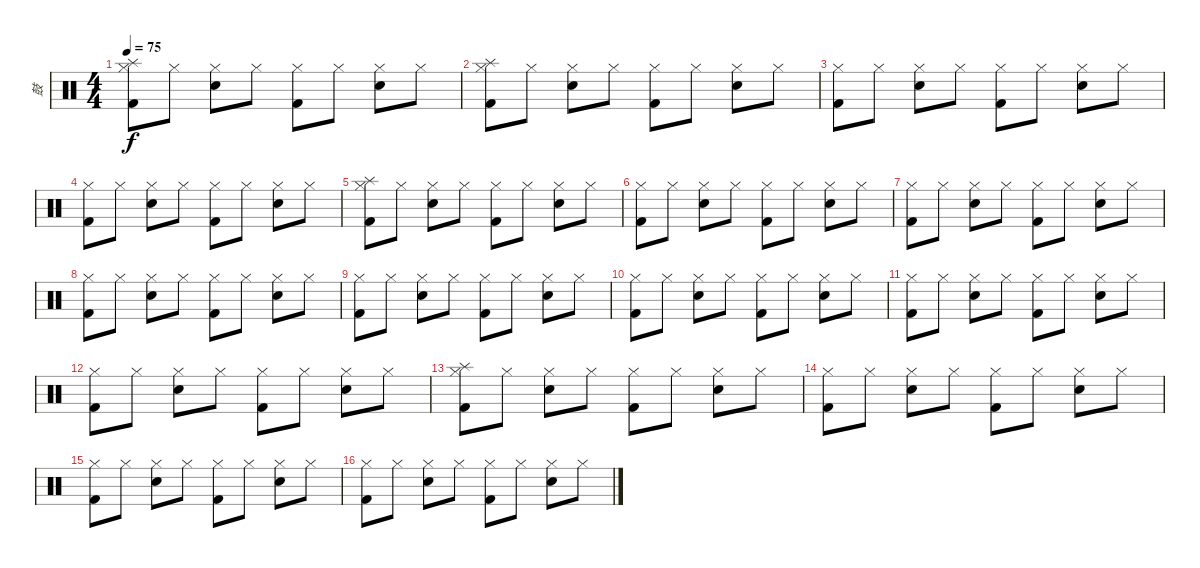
\track ("鼓" "鼓") {instrument percussion}
\staff {score}
\articulation defaults
\ts (4 4)
\tempo 75
\clef neutral
\ks c
("Hi-Hat (closed)" "Splash (hit)" "Kick (hit) 2").8{dy f} "Hi-Hat (closed)".8 ("Hi-Hat (closed)" "Electric Snare (hit)").8 "Hi-Hat (closed)".8 ("Hi-Hat (closed)" "Kick (hit) 2").8 "Hi-Hat (closed)".8 ("Hi-Hat (closed)" "Electric Snare (hit)").8 "Hi-Hat (closed)".8 |
("Hi-Hat (closed)" "Splash (hit)" "Kick (hit) 2").8 "Hi-Hat (closed)".8 ("Hi-Hat (closed)" "Electric Snare (hit)").8 "Hi-Hat (closed)".8 ("Hi-Hat (closed)" "Kick (hit) 2").8 "Hi-Hat (closed)".8 ("Hi-Hat (closed)" "Electric Snare (hit)").8 "Hi-Hat (closed)".8 |
("Hi-Hat (closed)" "Kick (hit) 2").8 "Hi-Hat (closed)".8 ("Hi-Hat (closed)" "Electric Snare (hit)").8 "Hi-Hat (closed)".8 ("Hi-Hat (closed)" "Kick (hit) 2").8 "Hi-Hat (closed)".8 ("Hi-Hat (closed)" "Electric Snare (hit)").8 "Hi-Hat (closed)".8 |
("Hi-Hat (closed)" "Kick (hit) 2").8 "Hi-Hat (closed)".8 ("Hi-Hat (closed)" "Electric Snare (hit)").8 "Hi-Hat (closed)".8 ("Hi-Hat (closed)" "Kick (hit) 2").8 "Hi-Hat (closed)".8 ("Hi-Hat (closed)" "Electric Snare (hit)").8 "Hi-Hat (closed)".8 |
("Hi-Hat (closed)" "Splash (hit)" "Kick (hit) 2").8 "Hi-Hat (closed)".8 ("Hi-Hat (closed)" "Electric Snare (hit)").8 "Hi-Hat (closed)".8 ("Hi-Hat (closed)" "Kick (hit) 2").8 "Hi-Hat (closed)".8 ("Hi-Hat (closed)" "Electric Snare (hit)").8 "Hi-Hat (closed)".8 |
("Hi-Hat (closed)" "Kick (hit) 2").8 "Hi-Hat (closed)".8 ("Hi-Hat (closed)" "Electric Snare (hit)").8 "Hi-Hat (closed)".8 ("Hi-Hat (closed)" "Kick (hit) 2").8 "Hi-Hat (closed)".8 ("Hi-Hat (closed)" "Electric Snare (hit)").8 "Hi-Hat (closed)".8 |
("Hi-Hat (closed)" "Kick (hit) 2").8 "Hi-Hat (closed)".8 ("Hi-Hat (closed)" "Electric Snare (hit)").8 "Hi-Hat (closed)".8 ("Hi-Hat (closed)" "Kick (hit) 2").8 "Hi-Hat (closed)".8 ("Hi-Hat (closed)" "Electric Snare (hit)").8 "Hi-Hat (closed)".8 |
("Hi-Hat (closed)" "Kick (hit) 2").8 "Hi-Hat (closed)".8 ("Hi-Hat (closed)" "Electric Snare (hit)").8 "Hi-Hat (closed)".8 ("Hi-Hat (closed)" "Kick (hit) 2").8 "Hi-Hat (closed)".8 ("Hi-Hat (closed)" "Electric Snare (hit)").8 "Hi-Hat (closed)".8 |
("Hi-Hat (closed)" "Kick (hit) 2").8 "Hi-Hat (closed)".8 ("Hi-Hat (closed)" "Electric Snare (hit)").8 "Hi-Hat (closed)".8 ("Hi-Hat (closed)" "Kick (hit) 2").8 "Hi-Hat (closed)".8 ("Hi-Hat (closed)" "Electric Snare (hit)").8 "Hi-Hat (closed)".8 |
("Hi-Hat (closed)" "Kick (hit) 2").8 "Hi-Hat (closed)".8 ("Hi-Hat (closed)" "Electric Snare (hit)").8 "Hi-Hat (closed)".8 ("Hi-Hat (closed)" "Kick (hit) 2").8 "Hi-Hat (closed)".8 ("Hi-Hat (closed)" "Electric Snare (hit)").8 "Hi-Hat (closed)".8 |
("Hi-Hat (closed)" "Kick (hit) 2").8 "Hi-Hat (closed)".8 ("Hi-Hat (closed)" "Electric Snare (hit)").8 "Hi-Hat (closed)".8 ("Hi-Hat (closed)" "Kick (hit) 2").8 "Hi-Hat (closed)".8 ("Hi-Hat (closed)" "Electric Snare (hit)").8 "Hi-Hat (closed)".8 |
("Hi-Hat (closed)" "Kick (hit) 2").8 "Hi-Hat (closed)".8 ("Hi-Hat (closed)" "Electric Snare (hit)").8 "Hi-Hat (closed)".8 ("Hi-Hat (closed)" "Kick (hit) 2").8 "Hi-Hat (closed)".8 ("Hi-Hat (closed)" "Electric Snare (hit)").8 "Hi-Hat (closed)".8 |
("Hi-Hat (closed)" "Splash (hit)" "Kick (hit) 2").8 "Hi-Hat (closed)".8 ("Hi-Hat (closed)" "Electric Snare (hit)").8 "Hi-Hat (closed)".8 ("Hi-Hat (closed)" "Kick (hit) 2").8 "Hi-Hat (closed)".8 ("Hi-Hat (closed)" "Electric Snare (hit)").8 "Hi-Hat (closed)".8 |
("Hi-Hat (closed)" "Kick (hit) 2").8 "Hi-Hat (closed)".8 ("Hi-Hat (closed)" "Electric Snare (hit)").8 "Hi-Hat (closed)".8 ("Hi-Hat (closed)" "Kick (hit) 2").8 "Hi-Hat (closed)".8 ("Hi-Hat (closed)" "Electric Snare (hit)").8 "Hi-Hat (closed)".8 |
("Hi-Hat (closed)" "Kick (hit) 2").8 "Hi-Hat (closed)".8 ("Hi-Hat (closed)" "Electric Snare (hit)").8 "Hi-Hat (closed)".8 ("Hi-Hat (closed)" "Kick (hit) 2").8 "Hi-Hat (closed)".8 ("Hi-Hat (closed)" "Electric Snare (hit)").8 "Hi-Hat (closed)".8 |
("Hi-Hat (closed)" "Kick (hit) 2").8 "Hi-Hat (closed)".8 ("Hi-Hat (closed)" "Electric Snare (hit)").8 "Hi-Hat (closed)".8 ("Hi-Hat (closed)" "Kick (hit) 2").8 "Hi-Hat (closed)".8 ("Hi-Hat (closed)" "Electric Snare (hit)").8 "Hi-Hat (closed)".8
